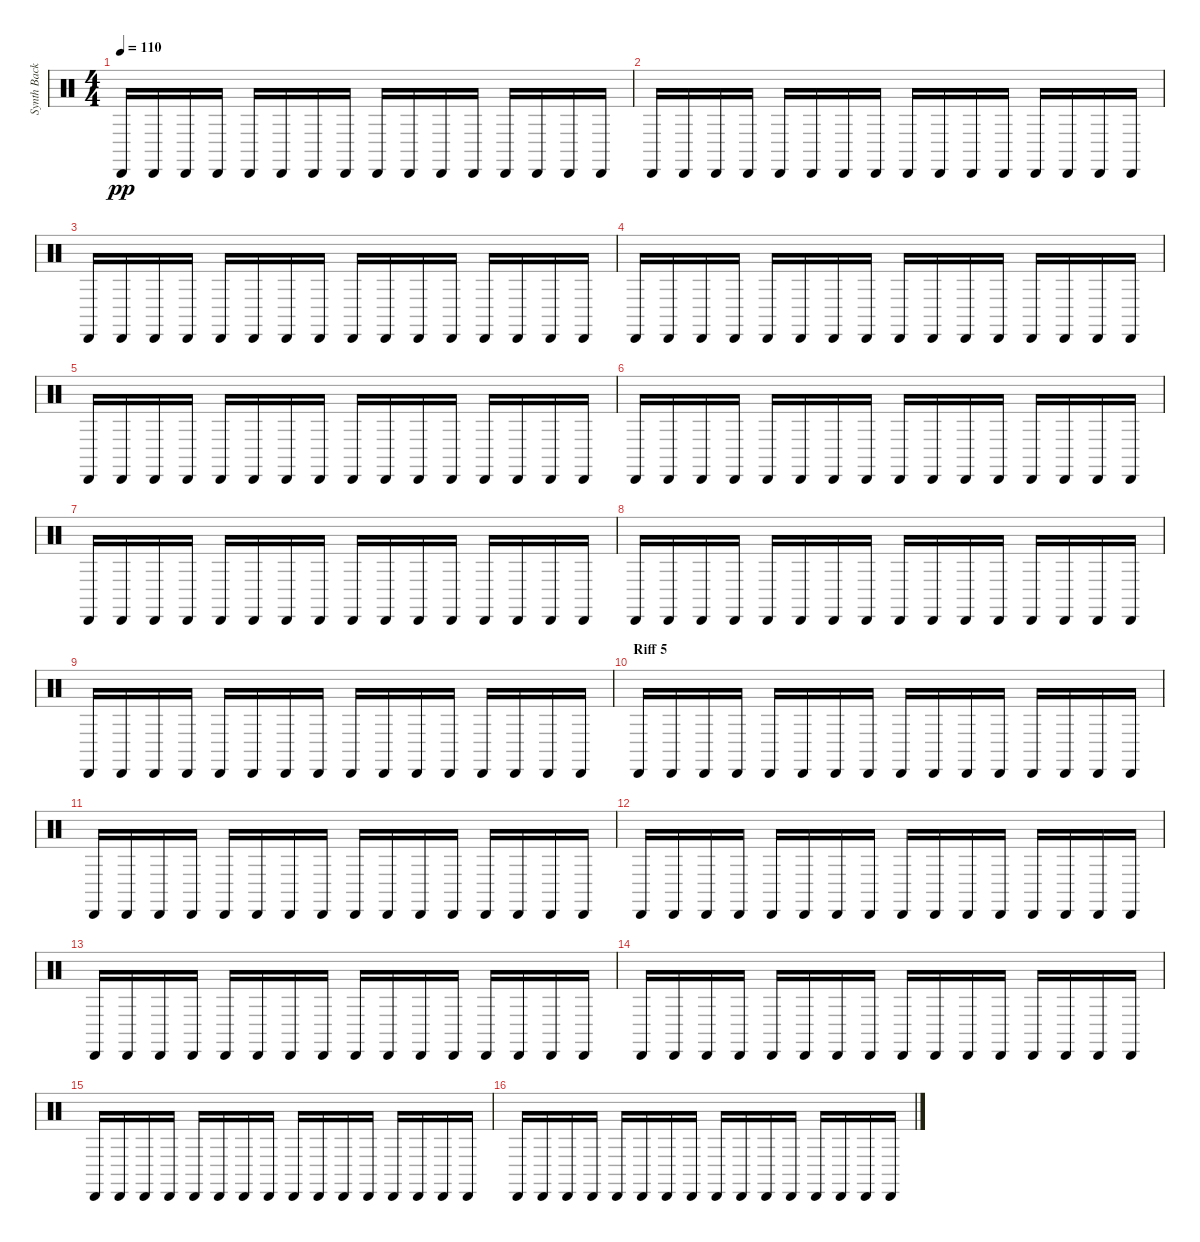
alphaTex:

\track ("Synth Background Rhythm" "Synth Back") {instrument percussion}
\staff {score}
\articulation defaults
\ts (4 4)
\tempo 110
\clef neutral
\ks c "Cabasa (hit)".16{dy pp} "Cabasa (hit)".16 "Cabasa (hit)".16 "Cabasa (hit)".16 "Cabasa (hit)".16 "Cabasa (hit)".16 "Cabasa (hit)".16 "Cabasa (hit)".16 "Cabasa (hit)".16 "Cabasa (hit)".16 "Cabasa (hit)".16 "Cabasa (hit)".16 "Cabasa (hit)".16 "Cabasa (hit)".16 "Cabasa (hit)".16 "Cabasa (hit)".16
|
"Cabasa (hit)".16 "Cabasa (hit)".16 "Cabasa (hit)".16 "Cabasa (hit)".16 "Cabasa (hit)".16 "Cabasa (hit)".16 "Cabasa (hit)".16 "Cabasa (hit)".16 "Cabasa (hit)".16 "Cabasa (hit)".16 "Cabasa (hit)".16 "Cabasa (hit)".16 "Cabasa (hit)".16 "Cabasa (hit)".16 "Cabasa (hit)".16 "Cabasa (hit)".16 |
"Cabasa (hit)".16 "Cabasa (hit)".16 "Cabasa (hit)".16 "Cabasa (hit)".16 "Cabasa (hit)".16 "Cabasa (hit)".16 "Cabasa (hit)".16 "Cabasa (hit)".16 "Cabasa (hit)".16 "Cabasa (hit)".16 "Cabasa (hit)".16 "Cabasa (hit)".16 "Cabasa (hit)".16 "Cabasa (hit)".16 "Cabasa (hit)".16 "Cabasa (hit)".16 |
"Cabasa (hit)".16 "Cabasa (hit)".16 "Cabasa (hit)".16 "Cabasa (hit)".16 "Cabasa (hit)".16 "Cabasa (hit)".16 "Cabasa (hit)".16 "Cabasa (hit)".16 "Cabasa (hit)".16 "Cabasa (hit)".16 "Cabasa (hit)".16 "Cabasa (hit)".16 "Cabasa (hit)".16 "Cabasa (hit)".16 "Cabasa (hit)".16 "Cabasa (hit)".16 |
"Cabasa (hit)".16 "Cabasa (hit)".16 "Cabasa (hit)".16 "Cabasa (hit)".16 "Cabasa (hit)".16 "Cabasa (hit)".16 "Cabasa (hit)".16 "Cabasa (hit)".16 "Cabasa (hit)".16 "Cabasa (hit)".16 "Cabasa (hit)".16 "Cabasa (hit)".16 "Cabasa (hit)".16 "Cabasa (hit)".16 "Cabasa (hit)".16 "Cabasa (hit)".16 |
"Cabasa (hit)".16 "Cabasa (hit)".16 "Cabasa (hit)".16 "Cabasa (hit)".16 "Cabasa (hit)".16 "Cabasa (hit)".16 "Cabasa (hit)".16 "Cabasa (hit)".16 "Cabasa (hit)".16 "Cabasa (hit)".16 "Cabasa (hit)".16 "Cabasa (hit)".16 "Cabasa (hit)".16 "Cabasa (hit)".16 "Cabasa (hit)".16 "Cabasa (hit)".16 |
"Cabasa (hit)".16 "Cabasa (hit)".16 "Cabasa (hit)".16 "Cabasa (hit)".16 "Cabasa (hit)".16 "Cabasa (hit)".16 "Cabasa (hit)".16 "Cabasa (hit)".16 "Cabasa (hit)".16 "Cabasa (hit)".16 "Cabasa (hit)".16 "Cabasa (hit)".16 "Cabasa (hit)".16 "Cabasa (hit)".16 "Cabasa (hit)".16 "Cabasa (hit)".16 |
"Cabasa (hit)".16 "Cabasa (hit)".16 "Cabasa (hit)".16 "Cabasa (hit)".16 "Cabasa (hit)".16 "Cabasa (hit)".16 "Cabasa (hit)".16 "Cabasa (hit)".16 "Cabasa (hit)".16 "Cabasa (hit)".16 "Cabasa (hit)".16 "Cabasa (hit)".16 "Cabasa (hit)".16 "Cabasa (hit)".16 "Cabasa (hit)".16 "Cabasa (hit)".16 |
"Cabasa (hit)".16 "Cabasa (hit)".16 "Cabasa (hit)".16 "Cabasa (hit)".16 "Cabasa (hit)".16 "Cabasa (hit)".16 "Cabasa (hit)".16 "Cabasa (hit)".16 "Cabasa (hit)".16 "Cabasa (hit)".16 "Cabasa (hit)".16 "Cabasa (hit)".16 "Cabasa (hit)".16 "Cabasa (hit)".16 "Cabasa (hit)".16 "Cabasa (hit)".16 |
\section ("" "Riff 5")
"Cabasa (hit)".16 "Cabasa (hit)".16 "Cabasa (hit)".16 "Cabasa (hit)".16 "Cabasa (hit)".16 "Cabasa (hit)".16 "Cabasa (hit)".16 "Cabasa (hit)".16 "Cabasa (hit)".16 "Cabasa (hit)".16 "Cabasa (hit)".16 "Cabasa (hit)".16 "Cabasa (hit)".16 "Cabasa (hit)".16 "Cabasa (hit)".16 "Cabasa (hit)".16 |
"Cabasa (hit)".16 "Cabasa (hit)".16 "Cabasa (hit)".16 "Cabasa (hit)".16 "Cabasa (hit)".16 "Cabasa (hit)".16 "Cabasa (hit)".16 "Cabasa (hit)".16 "Cabasa (hit)".16 "Cabasa (hit)".16 "Cabasa (hit)".16 "Cabasa (hit)".16 "Cabasa (hit)".16 "Cabasa (hit)".16 "Cabasa (hit)".16 "Cabasa (hit)".16 |
"Cabasa (hit)".16 "Cabasa (hit)".16 "Cabasa (hit)".16 "Cabasa (hit)".16 "Cabasa (hit)".16 "Cabasa (hit)".16 "Cabasa (hit)".16 "Cabasa (hit)".16 "Cabasa (hit)".16 "Cabasa (hit)".16 "Cabasa (hit)".16 "Cabasa (hit)".16 "Cabasa (hit)".16 "Cabasa (hit)".16 "Cabasa (hit)".16 "Cabasa (hit)".16 |
"Cabasa (hit)".16 "Cabasa (hit)".16 "Cabasa (hit)".16 "Cabasa (hit)".16 "Cabasa (hit)".16 "Cabasa (hit)".16 "Cabasa (hit)".16 "Cabasa (hit)".16 "Cabasa (hit)".16 "Cabasa (hit)".16 "Cabasa (hit)".16 "Cabasa (hit)".16 "Cabasa (hit)".16 "Cabasa (hit)".16 "Cabasa (hit)".16 "Cabasa (hit)".16 |
"Cabasa (hit)".16 "Cabasa (hit)".16 "Cabasa (hit)".16 "Cabasa (hit)".16 "Cabasa (hit)".16 "Cabasa (hit)".16 "Cabasa (hit)".16 "Cabasa (hit)".16 "Cabasa (hit)".16 "Cabasa (hit)".16 "Cabasa (hit)".16 "Cabasa (hit)".16 "Cabasa (hit)".16 "Cabasa (hit)".16 "Cabasa (hit)".16 "Cabasa (hit)".16 |
"Cabasa (hit)".16 "Cabasa (hit)".16 "Cabasa (hit)".16 "Cabasa (hit)".16 "Cabasa (hit)".16 "Cabasa (hit)".16 "Cabasa (hit)".16 "Cabasa (hit)".16 "Cabasa (hit)".16 "Cabasa (hit)".16 "Cabasa (hit)".16 "Cabasa (hit)".16 "Cabasa (hit)".16 "Cabasa (hit)".16 "Cabasa (hit)".16 "Cabasa (hit)".16 |
"Cabasa (hit)".16 "Cabasa (hit)".16 "Cabasa (hit)".16 "Cabasa (hit)".16 "Cabasa (hit)".16 "Cabasa (hit)".16 "Cabasa (hit)".16 "Cabasa (hit)".16 "Cabasa (hit)".16 "Cabasa (hit)".16 "Cabasa (hit)".16 "Cabasa (hit)".16 "Cabasa (hit)".16 "Cabasa (hit)".16 "Cabasa (hit)".16 "Cabasa (hit)".16
